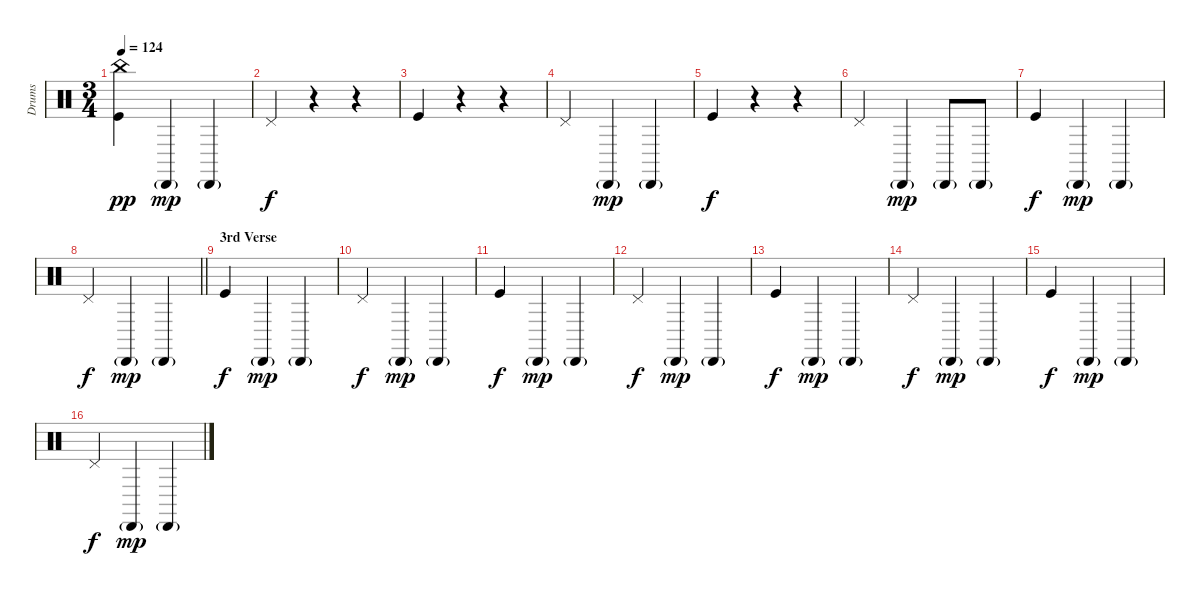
\track ("Drums" "Drums") {instrument percussion}
\staff {score}
\articulation defaults
\ts (3 4)
\tempo 124
\clef neutral
\ks c
("China (hit)" "Kick (hit)").4{dy pp} "Cabasa (hit)"{g}.4{dy mp} "Cabasa (hit)"{g}.4 |
"Pedal Hi-Hat (hit)".4{dy f} r.4 r.4 |
"Kick (hit)".4 r.4 r.4 |
"Pedal Hi-Hat (hit)".4 "Cabasa (hit)"{g}.4{dy mp} "Cabasa (hit)"{g}.4 |
"Kick (hit)".4{dy f} r.4 r.4 |
"Pedal Hi-Hat (hit)".4 "Cabasa (hit)"{g}.4{dy mp} "Cabasa (hit)"{g}.8 "Cabasa (hit)"{g}.8 |
"Kick (hit)".4{dy f} "Cabasa (hit)"{g}.4{dy mp} "Cabasa (hit)"{g}.4 |
\barLineRight lightlight "Pedal Hi-Hat (hit)".4{dy f} "Cabasa (hit)"{g}.4{dy mp} "Cabasa (hit)"{g}.4
|
\section ("" "3rd Verse")
"Kick (hit)".4{dy f} "Cabasa (hit)"{g}.4{dy mp} "Cabasa (hit)"{g}.4 |
"Pedal Hi-Hat (hit)".4{dy f} "Cabasa (hit)"{g}.4{dy mp} "Cabasa (hit)"{g}.4 |
"Kick (hit)".4{dy f} "Cabasa (hit)"{g}.4{dy mp} "Cabasa (hit)"{g}.4 |
"Pedal Hi-Hat (hit)".4{dy f} "Cabasa (hit)"{g}.4{dy mp} "Cabasa (hit)"{g}.4 |
"Kick (hit)".4{dy f} "Cabasa (hit)"{g}.4{dy mp} "Cabasa (hit)"{g}.4 |
"Pedal Hi-Hat (hit)".4{dy f} "Cabasa (hit)"{g}.4{dy mp} "Cabasa (hit)"{g}.4 |
"Kick (hit)".4{dy f} "Cabasa (hit)"{g}.4{dy mp} "Cabasa (hit)"{g}.4 |
"Pedal Hi-Hat (hit)".4{dy f} "Cabasa (hit)"{g}.4{dy mp} "Cabasa (hit)"{g}.4
